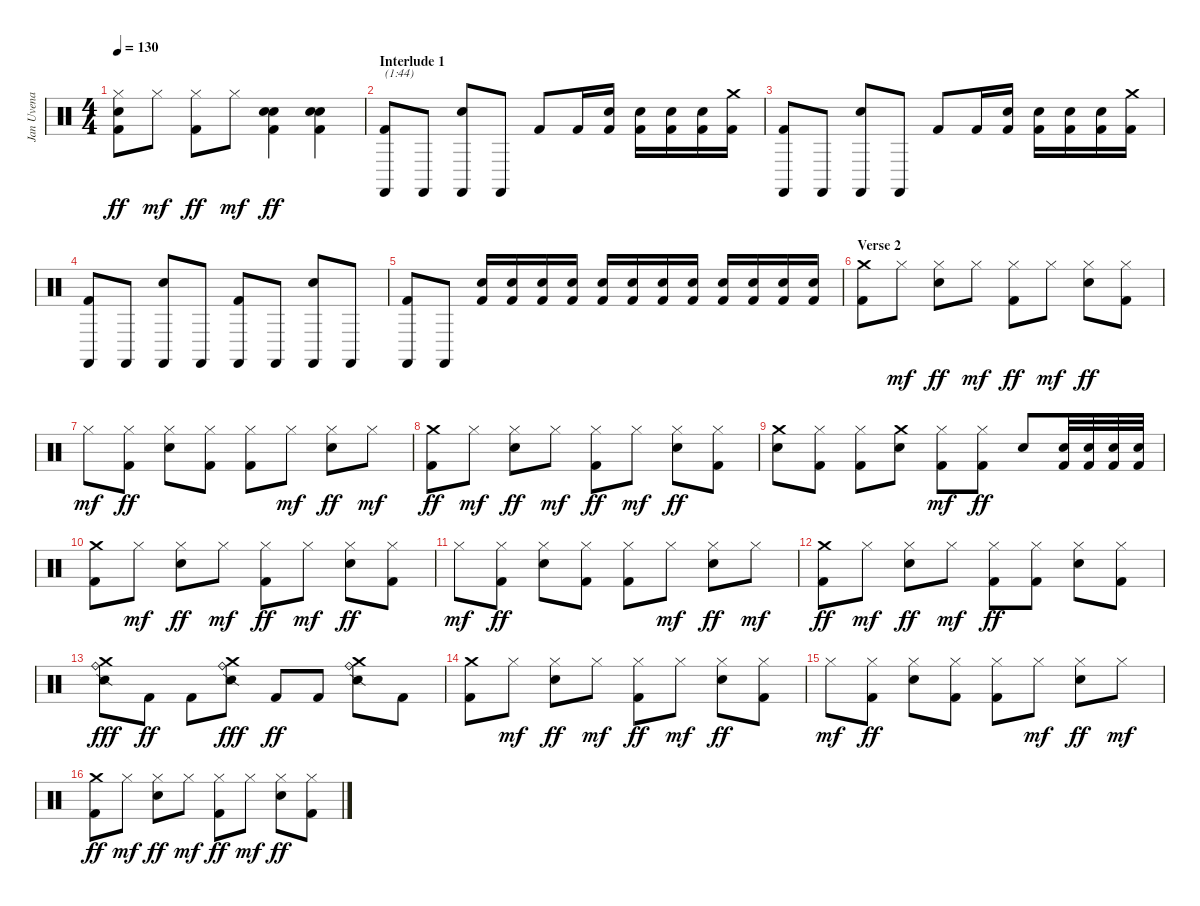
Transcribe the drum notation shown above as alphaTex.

\track ("Jan Uvena" "Jan Uvena") {instrument percussion}
\staff {score}
\articulation defaults
\ts (4 4)
\tempo 130
\clef neutral
\ks c
("Hi-Hat (closed)" "Snare (hit) 2" "Kick (hit) 2").8{dy ff} "Hi-Hat (closed)".8{dy mf} ("Hi-Hat (closed)" "Kick (hit) 2").8{dy ff} "Hi-Hat (closed)".8{dy mf} ("Electric Snare (hit)" "Snare (hit) 2" "Kick (hit) 2").4{dy ff} ("Electric Snare (hit)" "Snare (hit) 2" "Kick (hit) 2").4 |
\section ("" "Interlude 1")
("Castanets (hit)" "Kick (hit) 2").8{txt "(1:44)"} "Castanets (hit)".8 ("Castanets (hit)" "Snare (hit) 2").8 "Castanets (hit)".8 "Kick (hit) 2".8 "Kick (hit) 2".16 ("Snare (hit) 2" "Kick (hit) 2").16 ("Snare (hit) 2" "Kick (hit) 2").16 ("Snare (hit) 2" "Kick (hit) 2").16 ("Snare (hit) 2" "Kick (hit) 2").16 ("Crash medium (hit)" "Kick (hit) 2").16 |
("Castanets (hit)" "Kick (hit) 2").8 "Castanets (hit)".8 ("Castanets (hit)" "Snare (hit) 2").8 "Castanets (hit)".8 "Kick (hit) 2".8 "Kick (hit) 2".16 ("Snare (hit) 2" "Kick (hit) 2").16 ("Snare (hit) 2" "Kick (hit) 2").16 ("Snare (hit) 2" "Kick (hit) 2").16 ("Snare (hit) 2" "Kick (hit) 2").16 ("Crash medium (hit)" "Kick (hit) 2").16 |
("Castanets (hit)" "Kick (hit) 2").8 "Castanets (hit)".8 ("Castanets (hit)" "Snare (hit) 2").8 "Castanets (hit)".8 ("Castanets (hit)" "Kick (hit) 2").8 "Castanets (hit)".8 ("Castanets (hit)" "Snare (hit) 2").8 "Castanets (hit)".8 |
("Castanets (hit)" "Kick (hit) 2").8 "Castanets (hit)".8 ("Snare (hit) 2" "Kick (hit) 2").16 ("Snare (hit) 2" "Kick (hit) 2").16 ("Snare (hit) 2" "Kick (hit) 2").16 ("Snare (hit) 2" "Kick (hit) 2").16 ("Snare (hit) 2" "Kick (hit) 2").16 ("Snare (hit) 2" "Kick (hit) 2").16 ("Snare (hit) 2" "Kick (hit) 2").16 ("Snare (hit) 2" "Kick (hit) 2").16 ("Snare (hit) 2" "Kick (hit) 2").16 ("Snare (hit) 2" "Kick (hit) 2").16 ("Snare (hit) 2" "Kick (hit) 2").16 ("Snare (hit) 2" "Kick (hit) 2").16 |
\section ("" "Verse 2")
("Crash medium (hit)" "Kick (hit) 2").8 "Hi-Hat (closed)".8{dy mf} ("Hi-Hat (closed)" "Snare (hit) 2").8{dy ff} "Hi-Hat (closed)".8{dy mf} ("Hi-Hat (closed)" "Kick (hit) 2").8{dy ff} "Hi-Hat (closed)".8{dy mf} ("Hi-Hat (closed)" "Snare (hit) 2").8{dy ff} ("Hi-Hat (closed)" "Kick (hit) 2").8 |
"Hi-Hat (closed)".8{dy mf} ("Hi-Hat (closed)" "Kick (hit) 2").8{dy ff} ("Hi-Hat (closed)" "Snare (hit) 2").8 ("Hi-Hat (closed)" "Kick (hit) 2").8 ("Hi-Hat (closed)" "Kick (hit) 2").8 "Hi-Hat (closed)".8{dy mf} ("Hi-Hat (closed)" "Snare (hit) 2").8{dy ff} "Hi-Hat (closed)".8{dy mf} |
("Crash medium (hit)" "Kick (hit) 2").8{dy ff} "Hi-Hat (closed)".8{dy mf} ("Hi-Hat (closed)" "Snare (hit) 2").8{dy ff} "Hi-Hat (closed)".8{dy mf} ("Hi-Hat (closed)" "Kick (hit) 2").8{dy ff} "Hi-Hat (closed)".8{dy mf} ("Hi-Hat (closed)" "Snare (hit) 2").8{dy ff} ("Hi-Hat (closed)" "Kick (hit) 2").8 |
("Crash medium (hit)" "Snare (hit) 2").8 ("Hi-Hat (closed)" "Kick (hit) 2").8 ("Hi-Hat (closed)" "Kick (hit) 2").8 ("Crash medium (hit)" "Snare (hit) 2").8 ("Hi-Hat (closed)" "Kick (hit) 2").8{dy mf} ("Hi-Hat (closed)" "Kick (hit) 2").8{dy ff} "Snare (hit) 2".8 ("Snare (hit) 2" "Kick (hit) 2").32 ("Snare (hit) 2" "Kick (hit) 2").32 ("Snare (hit) 2" "Kick (hit) 2").32 ("Snare (hit) 2" "Kick (hit) 2").32 |
("Crash medium (hit)" "Kick (hit) 2").8 "Hi-Hat (closed)".8{dy mf} ("Hi-Hat (closed)" "Snare (hit) 2").8{dy ff} "Hi-Hat (closed)".8{dy mf} ("Hi-Hat (closed)" "Kick (hit) 2").8{dy ff} "Hi-Hat (closed)".8{dy mf} ("Hi-Hat (closed)" "Snare (hit) 2").8{dy ff} ("Hi-Hat (closed)" "Kick (hit) 2").8 |
"Hi-Hat (closed)".8{dy mf} ("Hi-Hat (closed)" "Kick (hit) 2").8{dy ff} ("Hi-Hat (closed)" "Snare (hit) 2").8 ("Hi-Hat (closed)" "Kick (hit) 2").8 ("Hi-Hat (closed)" "Kick (hit) 2").8 "Hi-Hat (closed)".8{dy mf} ("Hi-Hat (closed)" "Snare (hit) 2").8{dy ff} "Hi-Hat (closed)".8{dy mf} |
("Crash medium (hit)" "Kick (hit) 2").8{dy ff} "Hi-Hat (closed)".8{dy mf} ("Hi-Hat (closed)" "Snare (hit) 2").8{dy ff} "Hi-Hat (closed)".8{dy mf} ("Hi-Hat (closed)" "Kick (hit) 2").8{dy ff} ("Hi-Hat (closed)" "Kick (hit) 2").8 ("Hi-Hat (closed)" "Snare (hit) 2").8 ("Hi-Hat (closed)" "Kick (hit) 2").8 |
("Crash medium (hit)" "Ride (bell)" "Snare (side stick) 2").8{dy fff} "Kick (hit) 2".8{dy ff} "Kick (hit) 2".8 ("Crash medium (hit)" "Ride (bell)" "Snare (side stick) 2").8{dy fff} "Kick (hit) 2".8{dy ff} "Kick (hit) 2".8 ("Crash medium (hit)" "Ride (bell)" "Snare (side stick) 2").8 "Kick (hit) 2".8 |
("Crash medium (hit)" "Kick (hit) 2").8 "Hi-Hat (closed)".8{dy mf} ("Hi-Hat (closed)" "Snare (hit) 2").8{dy ff} "Hi-Hat (closed)".8{dy mf} ("Hi-Hat (closed)" "Kick (hit) 2").8{dy ff} "Hi-Hat (closed)".8{dy mf} ("Hi-Hat (closed)" "Snare (hit) 2").8{dy ff} ("Hi-Hat (closed)" "Kick (hit) 2").8 |
"Hi-Hat (closed)".8{dy mf} ("Hi-Hat (closed)" "Kick (hit) 2").8{dy ff} ("Hi-Hat (closed)" "Snare (hit) 2").8 ("Hi-Hat (closed)" "Kick (hit) 2").8 ("Hi-Hat (closed)" "Kick (hit) 2").8 "Hi-Hat (closed)".8{dy mf} ("Hi-Hat (closed)" "Snare (hit) 2").8{dy ff} "Hi-Hat (closed)".8{dy mf} |
("Crash medium (hit)" "Kick (hit) 2").8{dy ff} "Hi-Hat (closed)".8{dy mf} ("Hi-Hat (closed)" "Snare (hit) 2").8{dy ff} "Hi-Hat (closed)".8{dy mf} ("Hi-Hat (closed)" "Kick (hit) 2").8{dy ff} "Hi-Hat (closed)".8{dy mf} ("Hi-Hat (closed)" "Snare (hit) 2").8{dy ff} ("Hi-Hat (closed)" "Kick (hit) 2").8
